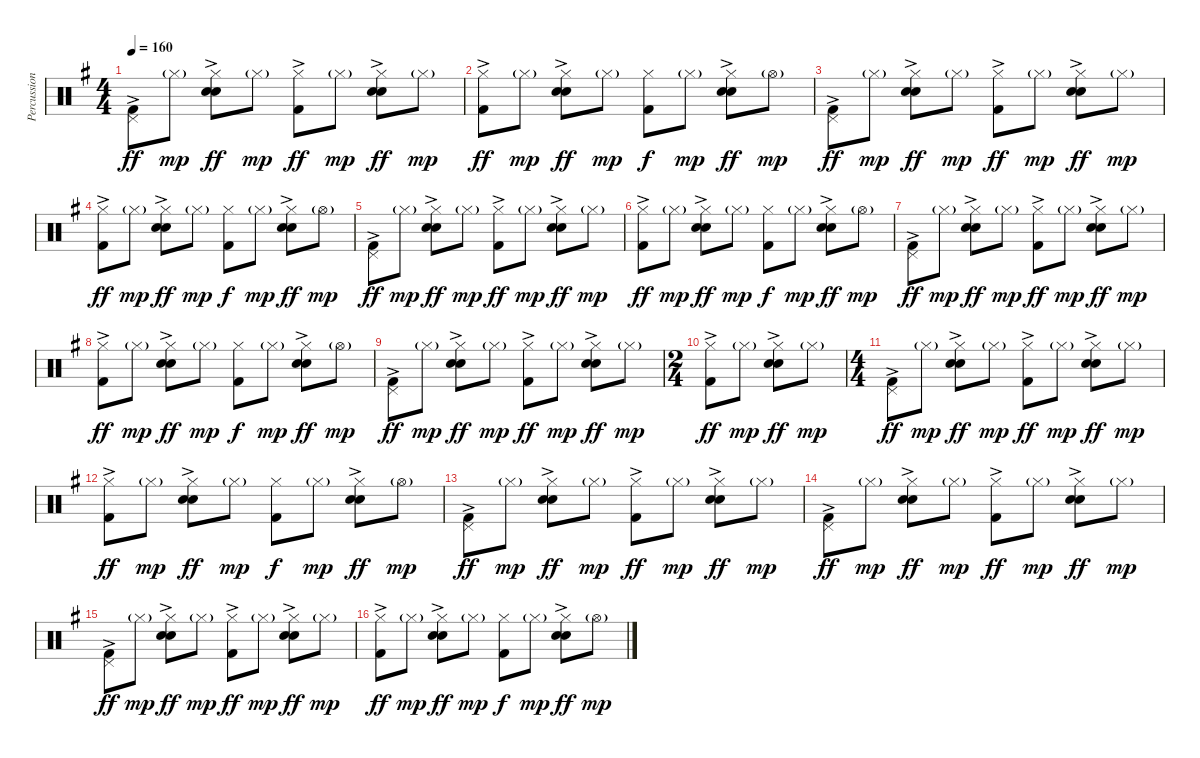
\track ("Percussion" "Percussion") {instrument percussion}
\staff {score}
\articulation defaults
\ts (4 4)
\tempo 160
\clef neutral
\ks g
("Pedal Hi-Hat (hit)" "Kick (hit) 2"{ac}).8{dy ff} "Hi-Hat (closed)"{g}.8{dy mp} ("Hi-Hat (closed)" "Electric Snare (hit)"{ac} "Snare (hit) 2").8{dy ff} "Hi-Hat (closed)"{g}.8{dy mp} ("Hi-Hat (closed)" "Kick (hit) 2"{ac}).8{dy ff} "Hi-Hat (closed)"{g}.8{dy mp} ("Hi-Hat (closed)" "Electric Snare (hit)"{ac} "Snare (hit) 2").8{dy ff} "Hi-Hat (closed)"{g}.8{dy mp} |
("Hi-Hat (closed)" "Kick (hit) 2"{ac}).8{dy ff} "Hi-Hat (closed)"{g}.8{dy mp} ("Hi-Hat (closed)" "Electric Snare (hit)"{ac} "Snare (hit) 2").8{dy ff} "Hi-Hat (closed)"{g}.8{dy mp} ("Hi-Hat (closed)" "Kick (hit) 2").8{dy f} "Hi-Hat (closed)"{g}.8{dy mp} ("Hi-Hat (closed)" "Electric Snare (hit)"{ac} "Snare (hit) 2").8{dy ff} "Hi-Hat (open)"{g}.8{dy mp} |
("Pedal Hi-Hat (hit)" "Kick (hit) 2"{ac}).8{dy ff} "Hi-Hat (closed)"{g}.8{dy mp} ("Hi-Hat (closed)" "Electric Snare (hit)"{ac} "Snare (hit) 2").8{dy ff} "Hi-Hat (closed)"{g}.8{dy mp} ("Hi-Hat (closed)" "Kick (hit) 2"{ac}).8{dy ff} "Hi-Hat (closed)"{g}.8{dy mp} ("Hi-Hat (closed)" "Electric Snare (hit)"{ac} "Snare (hit) 2").8{dy ff} "Hi-Hat (closed)"{g}.8{dy mp} |
("Hi-Hat (closed)" "Kick (hit) 2"{ac}).8{dy ff} "Hi-Hat (closed)"{g}.8{dy mp} ("Hi-Hat (closed)" "Electric Snare (hit)"{ac} "Snare (hit) 2").8{dy ff} "Hi-Hat (closed)"{g}.8{dy mp} ("Hi-Hat (closed)" "Kick (hit) 2").8{dy f} "Hi-Hat (closed)"{g}.8{dy mp} ("Hi-Hat (closed)" "Electric Snare (hit)"{ac} "Snare (hit) 2").8{dy ff} "Hi-Hat (open)"{g}.8{dy mp} |
("Pedal Hi-Hat (hit)" "Kick (hit) 2"{ac}).8{dy ff} "Hi-Hat (closed)"{g}.8{dy mp} ("Hi-Hat (closed)" "Electric Snare (hit)"{ac} "Snare (hit) 2").8{dy ff} "Hi-Hat (closed)"{g}.8{dy mp} ("Hi-Hat (closed)" "Kick (hit) 2"{ac}).8{dy ff} "Hi-Hat (closed)"{g}.8{dy mp} ("Hi-Hat (closed)" "Electric Snare (hit)"{ac} "Snare (hit) 2").8{dy ff} "Hi-Hat (closed)"{g}.8{dy mp} |
("Hi-Hat (closed)" "Kick (hit) 2"{ac}).8{dy ff} "Hi-Hat (closed)"{g}.8{dy mp} ("Hi-Hat (closed)" "Electric Snare (hit)"{ac} "Snare (hit) 2").8{dy ff} "Hi-Hat (closed)"{g}.8{dy mp} ("Hi-Hat (closed)" "Kick (hit) 2").8{dy f} "Hi-Hat (closed)"{g}.8{dy mp} ("Hi-Hat (closed)" "Electric Snare (hit)"{ac} "Snare (hit) 2").8{dy ff} "Hi-Hat (open)"{g}.8{dy mp} |
("Pedal Hi-Hat (hit)" "Kick (hit) 2"{ac}).8{dy ff} "Hi-Hat (closed)"{g}.8{dy mp} ("Hi-Hat (closed)" "Electric Snare (hit)"{ac} "Snare (hit) 2").8{dy ff} "Hi-Hat (closed)"{g}.8{dy mp} ("Hi-Hat (closed)" "Kick (hit) 2"{ac}).8{dy ff} "Hi-Hat (closed)"{g}.8{dy mp} ("Hi-Hat (closed)" "Electric Snare (hit)"{ac} "Snare (hit) 2").8{dy ff} "Hi-Hat (closed)"{g}.8{dy mp} |
("Hi-Hat (closed)" "Kick (hit) 2"{ac}).8{dy ff} "Hi-Hat (closed)"{g}.8{dy mp} ("Hi-Hat (closed)" "Electric Snare (hit)"{ac} "Snare (hit) 2").8{dy ff} "Hi-Hat (closed)"{g}.8{dy mp} ("Hi-Hat (closed)" "Kick (hit) 2").8{dy f} "Hi-Hat (closed)"{g}.8{dy mp} ("Hi-Hat (closed)" "Electric Snare (hit)"{ac} "Snare (hit) 2").8{dy ff} "Hi-Hat (open)"{g}.8{dy mp} |
("Pedal Hi-Hat (hit)" "Kick (hit) 2"{ac}).8{dy ff} "Hi-Hat (closed)"{g}.8{dy mp} ("Hi-Hat (closed)" "Electric Snare (hit)"{ac} "Snare (hit) 2").8{dy ff} "Hi-Hat (closed)"{g}.8{dy mp} ("Hi-Hat (closed)" "Kick (hit) 2"{ac}).8{dy ff} "Hi-Hat (closed)"{g}.8{dy mp} ("Hi-Hat (closed)" "Electric Snare (hit)"{ac} "Snare (hit) 2").8{dy ff} "Hi-Hat (closed)"{g}.8{dy mp} |
\ts (2 4)
("Hi-Hat (closed)" "Kick (hit) 2"{ac}).8{dy ff} "Hi-Hat (closed)"{g}.8{dy mp} ("Hi-Hat (closed)" "Electric Snare (hit)"{ac} "Snare (hit) 2").8{dy ff} "Hi-Hat (closed)"{g}.8{dy mp} |
\ts (4 4)
("Pedal Hi-Hat (hit)" "Kick (hit) 2"{ac}).8{dy ff} "Hi-Hat (closed)"{g}.8{dy mp} ("Hi-Hat (closed)" "Electric Snare (hit)"{ac} "Snare (hit) 2").8{dy ff} "Hi-Hat (closed)"{g}.8{dy mp} ("Hi-Hat (closed)" "Kick (hit) 2"{ac}).8{dy ff} "Hi-Hat (closed)"{g}.8{dy mp} ("Hi-Hat (closed)" "Electric Snare (hit)"{ac} "Snare (hit) 2").8{dy ff} "Hi-Hat (closed)"{g}.8{dy mp} |
("Hi-Hat (closed)" "Kick (hit) 2"{ac}).8{dy ff} "Hi-Hat (closed)"{g}.8{dy mp} ("Hi-Hat (closed)" "Electric Snare (hit)"{ac} "Snare (hit) 2").8{dy ff} "Hi-Hat (closed)"{g}.8{dy mp} ("Hi-Hat (closed)" "Kick (hit) 2").8{dy f} "Hi-Hat (closed)"{g}.8{dy mp} ("Hi-Hat (closed)" "Electric Snare (hit)"{ac} "Snare (hit) 2").8{dy ff} "Hi-Hat (open)"{g}.8{dy mp} |
("Pedal Hi-Hat (hit)" "Kick (hit) 2"{ac}).8{dy ff} "Hi-Hat (closed)"{g}.8{dy mp} ("Hi-Hat (closed)" "Electric Snare (hit)"{ac} "Snare (hit) 2").8{dy ff} "Hi-Hat (closed)"{g}.8{dy mp} ("Hi-Hat (closed)" "Kick (hit) 2"{ac}).8{dy ff} "Hi-Hat (closed)"{g}.8{dy mp} ("Hi-Hat (closed)" "Electric Snare (hit)"{ac} "Snare (hit) 2").8{dy ff} "Hi-Hat (closed)"{g}.8{dy mp} |
("Pedal Hi-Hat (hit)" "Kick (hit) 2"{ac}).8{dy ff} "Hi-Hat (closed)"{g}.8{dy mp} ("Hi-Hat (closed)" "Electric Snare (hit)"{ac} "Snare (hit) 2").8{dy ff} "Hi-Hat (closed)"{g}.8{dy mp} ("Hi-Hat (closed)" "Kick (hit) 2"{ac}).8{dy ff} "Hi-Hat (closed)"{g}.8{dy mp} ("Hi-Hat (closed)" "Electric Snare (hit)"{ac} "Snare (hit) 2").8{dy ff} "Hi-Hat (closed)"{g}.8{dy mp} |
("Pedal Hi-Hat (hit)" "Kick (hit) 2"{ac}).8{dy ff} "Hi-Hat (closed)"{g}.8{dy mp} ("Hi-Hat (closed)" "Electric Snare (hit)"{ac} "Snare (hit) 2").8{dy ff} "Hi-Hat (closed)"{g}.8{dy mp} ("Hi-Hat (closed)" "Kick (hit) 2"{ac}).8{dy ff} "Hi-Hat (closed)"{g}.8{dy mp} ("Hi-Hat (closed)" "Electric Snare (hit)"{ac} "Snare (hit) 2").8{dy ff} "Hi-Hat (closed)"{g}.8{dy mp} |
("Hi-Hat (closed)" "Kick (hit) 2"{ac}).8{dy ff} "Hi-Hat (closed)"{g}.8{dy mp} ("Hi-Hat (closed)" "Electric Snare (hit)"{ac} "Snare (hit) 2").8{dy ff} "Hi-Hat (closed)"{g}.8{dy mp} ("Hi-Hat (closed)" "Kick (hit) 2").8{dy f} "Hi-Hat (closed)"{g}.8{dy mp} ("Hi-Hat (closed)" "Electric Snare (hit)"{ac} "Snare (hit) 2").8{dy ff} "Hi-Hat (open)"{g}.8{dy mp}
